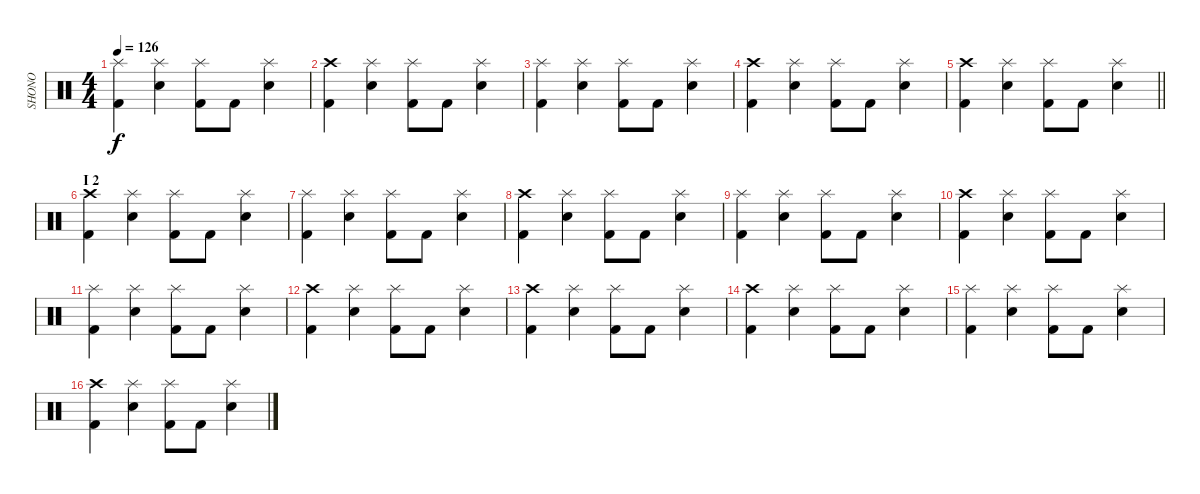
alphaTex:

\track ("SHONO" "SHONO") {instrument percussion}
\staff {score}
\articulation defaults
\ts (4 4)
\tempo 126
\clef neutral
\ks c
("Splash (hit)" "Kick (hit) 2").4{dy f} ("Splash (hit)" "Snare (hit) 2").4 ("Splash (hit)" "Kick (hit) 2").8 "Kick (hit) 2".8 ("Splash (hit)" "Snare (hit) 2").4 |
("Crash high (hit)" "Kick (hit) 2").4 ("Splash (hit)" "Snare (hit) 2").4 ("Splash (hit)" "Kick (hit) 2").8 "Kick (hit) 2".8 ("Splash (hit)" "Snare (hit) 2").4 |
("Splash (hit)" "Kick (hit) 2").4 ("Splash (hit)" "Snare (hit) 2").4 ("Splash (hit)" "Kick (hit) 2").8 "Kick (hit) 2".8 ("Splash (hit)" "Snare (hit) 2").4 |
("Crash high (hit)" "Kick (hit) 2").4 ("Splash (hit)" "Snare (hit) 2").4 ("Splash (hit)" "Kick (hit) 2").8 "Kick (hit) 2".8 ("Splash (hit)" "Snare (hit) 2").4 |
\barLineRight lightlight
("Crash high (hit)" "Kick (hit) 2").4 ("Splash (hit)" "Snare (hit) 2").4 ("Splash (hit)" "Kick (hit) 2").8 "Kick (hit) 2".8 ("Splash (hit)" "Snare (hit) 2").4 |
\section ("" "I 2")
("Crash high (hit)" "Kick (hit) 2").4 ("Splash (hit)" "Snare (hit) 2").4 ("Splash (hit)" "Kick (hit) 2").8 "Kick (hit) 2".8 ("Splash (hit)" "Snare (hit) 2").4 |
("Splash (hit)" "Kick (hit) 2").4 ("Splash (hit)" "Snare (hit) 2").4 ("Splash (hit)" "Kick (hit) 2").8 "Kick (hit) 2".8 ("Splash (hit)" "Snare (hit) 2").4 |
("Crash high (hit)" "Kick (hit) 2").4 ("Splash (hit)" "Snare (hit) 2").4 ("Splash (hit)" "Kick (hit) 2").8 "Kick (hit) 2".8 ("Splash (hit)" "Snare (hit) 2").4 |
("Splash (hit)" "Kick (hit) 2").4 ("Splash (hit)" "Snare (hit) 2").4 ("Splash (hit)" "Kick (hit) 2").8 "Kick (hit) 2".8 ("Splash (hit)" "Snare (hit) 2").4 |
("Crash high (hit)" "Kick (hit) 2").4 ("Splash (hit)" "Snare (hit) 2").4 ("Splash (hit)" "Kick (hit) 2").8 "Kick (hit) 2".8 ("Splash (hit)" "Snare (hit) 2").4 |
("Splash (hit)" "Kick (hit) 2").4 ("Splash (hit)" "Snare (hit) 2").4 ("Splash (hit)" "Kick (hit) 2").8 "Kick (hit) 2".8 ("Splash (hit)" "Snare (hit) 2").4 |
("Crash high (hit)" "Kick (hit) 2").4 ("Splash (hit)" "Snare (hit) 2").4 ("Splash (hit)" "Kick (hit) 2").8 "Kick (hit) 2".8 ("Splash (hit)" "Snare (hit) 2").4 |
("Crash high (hit)" "Kick (hit) 2").4 ("Splash (hit)" "Snare (hit) 2").4 ("Splash (hit)" "Kick (hit) 2").8 "Kick (hit) 2".8 ("Splash (hit)" "Snare (hit) 2").4 |
("Crash high (hit)" "Kick (hit) 2").4 ("Splash (hit)" "Snare (hit) 2").4 ("Splash (hit)" "Kick (hit) 2").8 "Kick (hit) 2".8 ("Splash (hit)" "Snare (hit) 2").4 |
("Splash (hit)" "Kick (hit) 2").4 ("Splash (hit)" "Snare (hit) 2").4 ("Splash (hit)" "Kick (hit) 2").8 "Kick (hit) 2".8 ("Splash (hit)" "Snare (hit) 2").4 |
("Crash high (hit)" "Kick (hit) 2").4 ("Splash (hit)" "Snare (hit) 2").4 ("Splash (hit)" "Kick (hit) 2").8 "Kick (hit) 2".8 ("Splash (hit)" "Snare (hit) 2").4
